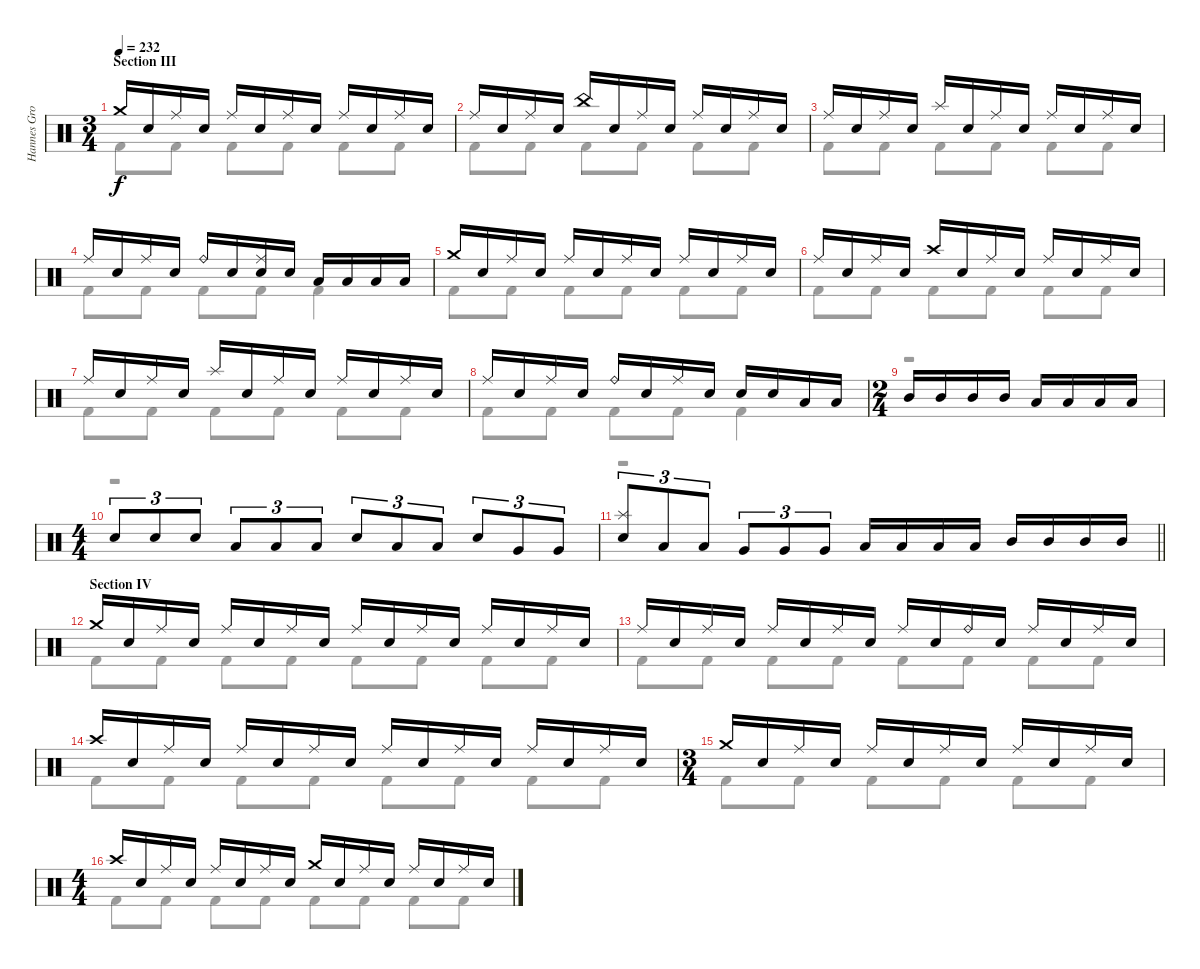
\track ("Hannes Grossman" "Hannes Gro") {instrument percussion}
\staff {score}
\articulation defaults
\voice
\ts (3 4)
\section ("" "Section III")
\tempo 232
\clef neutral
\ks c "Crash medium (hit)".16{dy f} "Electric Snare (hit)".16 "Ride (middle)".16 "Electric Snare (hit)".16 "Ride (middle)".16 "Electric Snare (hit)".16 "Ride (middle)".16 "Electric Snare (hit)".16 "Ride (middle)".16 "Electric Snare (hit)".16 "Ride (middle)".16 "Electric Snare (hit)".16
|
"Ride (middle)".16 "Electric Snare (hit)".16 "Ride (middle)".16 "Electric Snare (hit)".16 "China (hit)".16 "Electric Snare (hit)".16 "Ride (middle)".16 "Electric Snare (hit)".16 "Ride (middle)".16 "Electric Snare (hit)".16 "Ride (middle)".16 "Electric Snare (hit)".16 |
"Ride (middle)".16 "Electric Snare (hit)".16 "Ride (middle)".16 "Electric Snare (hit)".16 "Splash (hit)".16 "Electric Snare (hit)".16 "Ride (middle)".16 "Electric Snare (hit)".16 "Ride (middle)".16 "Electric Snare (hit)".16 "Ride (middle)".16 "Electric Snare (hit)".16 |
"Ride (middle)".16 "Electric Snare (hit)".16 "Ride (middle)".16 "Electric Snare (hit)".16 "Ride (bell)".16 "Electric Snare (hit)".16 ("Electric Snare (hit)" "Ride (middle)").16 "Electric Snare (hit)".16 "Low Tom (hit)".16 "Low Tom (hit)".16 "Low Tom (hit)".16 "Low Tom (hit)".16 |
"Crash medium (hit)".16 "Electric Snare (hit)".16 "Ride (middle)".16 "Electric Snare (hit)".16 "Ride (middle)".16 "Electric Snare (hit)".16 "Ride (middle)".16 "Electric Snare (hit)".16 "Ride (middle)".16 "Electric Snare (hit)".16 "Ride (middle)".16 "Electric Snare (hit)".16 |
"Ride (middle)".16 "Electric Snare (hit)".16 "Ride (middle)".16 "Electric Snare (hit)".16 "Crash high (hit)".16 "Electric Snare (hit)".16 "Ride (middle)".16 "Electric Snare (hit)".16 "Ride (middle)".16 "Electric Snare (hit)".16 "Ride (middle)".16 "Electric Snare (hit)".16 |
"Ride (middle)".16 "Electric Snare (hit)".16 "Ride (middle)".16 "Electric Snare (hit)".16 "Splash (hit)".16 "Electric Snare (hit)".16 "Ride (middle)".16 "Electric Snare (hit)".16 "Ride (middle)".16 "Electric Snare (hit)".16 "Ride (middle)".16 "Electric Snare (hit)".16 |
"Ride (middle)".16 "Electric Snare (hit)".16 "Ride (middle)".16 "Electric Snare (hit)".16 "Ride (bell)".16 "Electric Snare (hit)".16 "Ride (middle)".16 "Electric Snare (hit)".16 "Electric Snare (hit)".16 "Electric Snare (hit)".16 "Low Tom (hit)".16 "Low Tom (hit)".16 |
\ts (2 4)
"Mid Tom (hit)".16 "Mid Tom (hit)".16 "Mid Tom (hit)".16 "Mid Tom (hit)".16 "Low Tom (hit)".16 "Low Tom (hit)".16 "Low Tom (hit)".16 "Low Tom (hit)".16 |
\ts (4 4)
"Electric Snare (hit)".8{tu (3 2)} "Electric Snare (hit)".8{tu (3 2)} "Electric Snare (hit)".8{tu (3 2)} "Low Tom (hit)".8{tu (3 2)} "Low Tom (hit)".8{tu (3 2)} "Low Tom (hit)".8{tu (3 2)} "Electric Snare (hit)".8{tu (3 2)} "Low Tom (hit)".8{tu (3 2)} "Low Tom (hit)".8{tu (3 2)} "Electric Snare (hit)".8{tu (3 2)} "Very Low Tom (hit)".8{tu (3 2)} "Very Low Tom (hit)".8{tu (3 2)} |
\barLineRight lightlight
("Splash (hit)" "Electric Snare (hit)").8{tu (3 2)} "Low Tom (hit)".8{tu (3 2)} "Low Tom (hit)".8{tu (3 2)} "Very Low Tom (hit)".8{tu (3 2)} "Very Low Tom (hit)".8{tu (3 2)} "Very Low Tom (hit)".8{tu (3 2)} "Low Tom (hit)".16 "Low Tom (hit)".16 "Low Tom (hit)".16 "Low Tom (hit)".16 "Mid Tom (hit)".16 "Mid Tom (hit)".16 "Mid Tom (hit)".16 "Mid Tom (hit)".16 |
\section ("" "Section IV")
"Crash medium (hit)".16 "Electric Snare (hit)".16 "Ride (middle)".16 "Electric Snare (hit)".16 "Ride (middle)".16 "Electric Snare (hit)".16 "Ride (middle)".16 "Electric Snare (hit)".16 "Ride (middle)".16 "Electric Snare (hit)".16 "Ride (middle)".16 "Electric Snare (hit)".16 "Ride (middle)".16 "Electric Snare (hit)".16 "Ride (middle)".16 "Electric Snare (hit)".16 |
"Ride (middle)".16 "Electric Snare (hit)".16 "Ride (middle)".16 "Electric Snare (hit)".16 "Ride (middle)".16 "Electric Snare (hit)".16 "Ride (middle)".16 "Electric Snare (hit)".16 "Ride (middle)".16 "Electric Snare (hit)".16 "Ride (bell)".16 "Electric Snare (hit)".16 "Ride (middle)".16 "Electric Snare (hit)".16 "Ride (middle)".16 "Electric Snare (hit)".16 |
"Crash high (hit)".16 "Electric Snare (hit)".16 "Ride (middle)".16 "Electric Snare (hit)".16 "Ride (middle)".16 "Electric Snare (hit)".16 "Ride (middle)".16 "Electric Snare (hit)".16 "Ride (middle)".16 "Electric Snare (hit)".16 "Ride (middle)".16 "Electric Snare (hit)".16 "Ride (middle)".16 "Electric Snare (hit)".16 "Ride (middle)".16 "Electric Snare (hit)".16 |
\ts (3 4)
"Crash medium (hit)".16 "Electric Snare (hit)".16 "Ride (middle)".16 "Electric Snare (hit)".16 "Ride (middle)".16 "Electric Snare (hit)".16 "Ride (middle)".16 "Electric Snare (hit)".16 "Ride (middle)".16 "Electric Snare (hit)".16 "Ride (middle)".16 "Electric Snare (hit)".16 |
\ts (4 4)
"Crash high (hit)".16 "Electric Snare (hit)".16 "Ride (middle)".16 "Electric Snare (hit)".16 "Ride (middle)".16 "Electric Snare (hit)".16 "Ride (middle)".16 "Electric Snare (hit)".16 "Crash medium (hit)".16 "Electric Snare (hit)".16 "Ride (middle)".16 "Electric Snare (hit)".16 "Ride (middle)".16 "Electric Snare (hit)".16 "Ride (middle)".16 "Electric Snare (hit)".16
\voice
\clef neutral
\ottava regular
\simile none
\ks c "Kick (hit) 2".8{dy f} "Kick (hit) 2".8 "Kick (hit) 2".8 "Kick (hit) 2".8 "Kick (hit) 2".8 "Kick (hit) 2".8
|
"Kick (hit) 2".8 "Kick (hit) 2".8 "Kick (hit) 2".8 "Kick (hit) 2".8 "Kick (hit) 2".8 "Kick (hit) 2".8 |
"Kick (hit) 2".8 "Kick (hit) 2".8 "Kick (hit) 2".8 "Kick (hit) 2".8 "Kick (hit) 2".8 "Kick (hit) 2".8 |
"Kick (hit) 2".8 "Kick (hit) 2".8 "Kick (hit) 2".8 "Kick (hit) 2".8 "Kick (hit) 2".4 |
"Kick (hit) 2".8 "Kick (hit) 2".8 "Kick (hit) 2".8 "Kick (hit) 2".8 "Kick (hit) 2".8 "Kick (hit) 2".8 |
"Kick (hit) 2".8 "Kick (hit) 2".8 "Kick (hit) 2".8 "Kick (hit) 2".8 "Kick (hit) 2".8 "Kick (hit) 2".8 |
"Kick (hit) 2".8 "Kick (hit) 2".8 "Kick (hit) 2".8 "Kick (hit) 2".8 "Kick (hit) 2".8 "Kick (hit) 2".8 |
"Kick (hit) 2".8 "Kick (hit) 2".8 "Kick (hit) 2".8 "Kick (hit) 2".8 "Kick (hit) 2".4 |
r.2 |
r.1 |
\barLineRight lightlight
r.1 |
"Kick (hit) 2".8 "Kick (hit) 2".8 "Kick (hit) 2".8 "Kick (hit) 2".8 "Kick (hit) 2".8 "Kick (hit) 2".8 "Kick (hit) 2".8 "Kick (hit) 2".8 |
"Kick (hit) 2".8 "Kick (hit) 2".8 "Kick (hit) 2".8 "Kick (hit) 2".8 "Kick (hit) 2".8 "Kick (hit) 2".8 "Kick (hit) 2".8 "Kick (hit) 2".8 |
"Kick (hit) 2".8 "Kick (hit) 2".8 "Kick (hit) 2".8 "Kick (hit) 2".8 "Kick (hit) 2".8 "Kick (hit) 2".8 "Kick (hit) 2".8 "Kick (hit) 2".8 |
"Kick (hit) 2".8 "Kick (hit) 2".8 "Kick (hit) 2".8 "Kick (hit) 2".8 "Kick (hit) 2".8 "Kick (hit) 2".8 |
"Kick (hit) 2".8 "Kick (hit) 2".8 "Kick (hit) 2".8 "Kick (hit) 2".8 "Kick (hit) 2".8 "Kick (hit) 2".8 "Kick (hit) 2".8 "Kick (hit) 2".8
